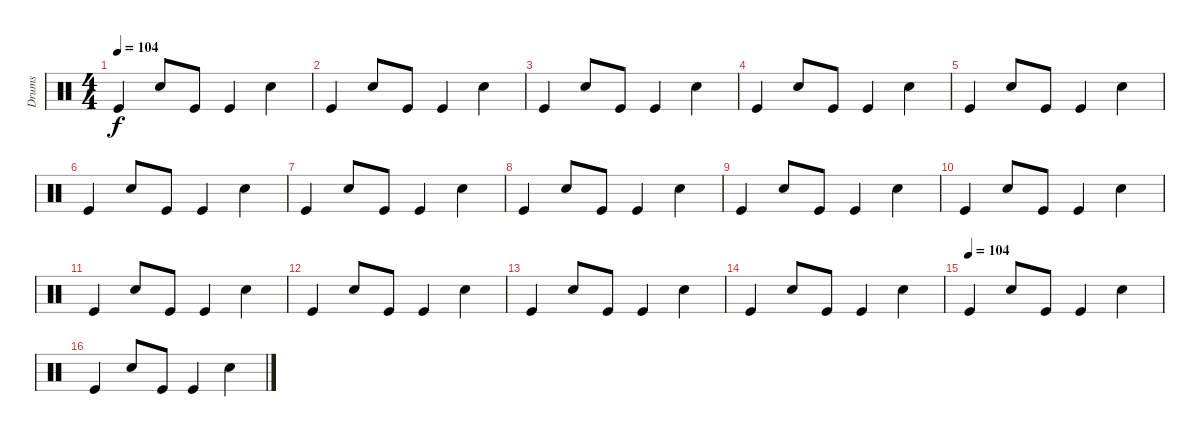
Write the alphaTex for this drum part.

\track ("Drums" "Drums") {instrument percussion}
\staff {score}
\articulation defaults
\ts (4 4)
\tempo 104
\clef neutral
\ks c "Kick (hit)".4{dy f} "Snare (hit) 2".8 "Kick (hit)".8 "Kick (hit)".4 "Snare (hit) 2".4
|
"Kick (hit)".4 "Snare (hit) 2".8 "Kick (hit)".8 "Kick (hit)".4 "Snare (hit) 2".4 |
"Kick (hit)".4 "Snare (hit) 2".8 "Kick (hit)".8 "Kick (hit)".4 "Snare (hit) 2".4 |
"Kick (hit)".4 "Snare (hit) 2".8 "Kick (hit)".8 "Kick (hit)".4 "Snare (hit) 2".4 |
"Kick (hit)".4 "Snare (hit) 2".8 "Kick (hit)".8 "Kick (hit)".4 "Snare (hit) 2".4 |
"Kick (hit)".4 "Snare (hit) 2".8 "Kick (hit)".8 "Kick (hit)".4 "Snare (hit) 2".4 |
"Kick (hit)".4 "Snare (hit) 2".8 "Kick (hit)".8 "Kick (hit)".4 "Snare (hit) 2".4 |
"Kick (hit)".4 "Snare (hit) 2".8 "Kick (hit)".8 "Kick (hit)".4 "Snare (hit) 2".4 |
"Kick (hit)".4 "Snare (hit) 2".8 "Kick (hit)".8 "Kick (hit)".4 "Snare (hit) 2".4 |
"Kick (hit)".4 "Snare (hit) 2".8 "Kick (hit)".8 "Kick (hit)".4 "Snare (hit) 2".4 |
"Kick (hit)".4 "Snare (hit) 2".8 "Kick (hit)".8 "Kick (hit)".4 "Snare (hit) 2".4 |
"Kick (hit)".4 "Snare (hit) 2".8 "Kick (hit)".8 "Kick (hit)".4 "Snare (hit) 2".4 |
"Kick (hit)".4 "Snare (hit) 2".8 "Kick (hit)".8 "Kick (hit)".4 "Snare (hit) 2".4 |
"Kick (hit)".4 "Snare (hit) 2".8 "Kick (hit)".8 "Kick (hit)".4 "Snare (hit) 2".4 |
\tempo (104)
"Kick (hit)".4 "Snare (hit) 2".8 "Kick (hit)".8 "Kick (hit)".4 "Snare (hit) 2".4 |
"Kick (hit)".4 "Snare (hit) 2".8 "Kick (hit)".8 "Kick (hit)".4 "Snare (hit) 2".4
